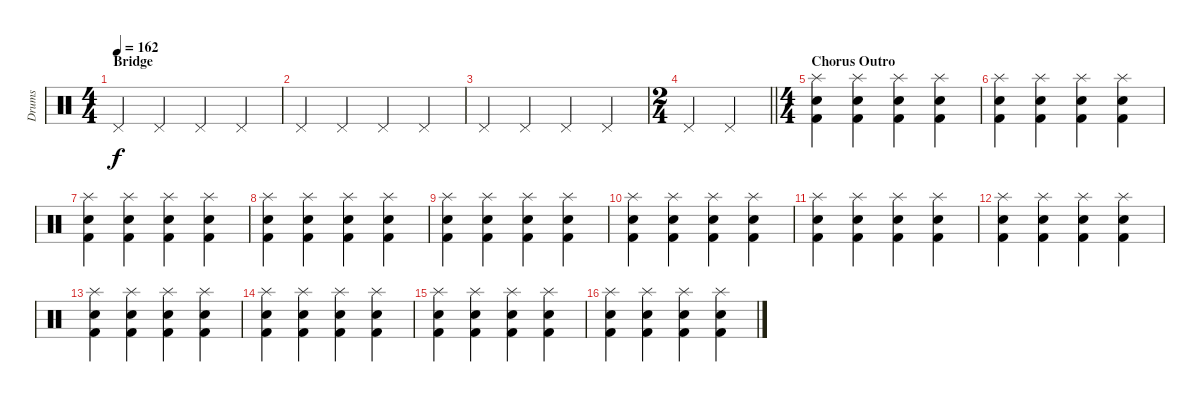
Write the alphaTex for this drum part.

\track ("Drums" "Drums") {instrument percussion}
\staff {score}
\articulation defaults
\ts (4 4)
\section ("" "Bridge")
\tempo 162
\clef neutral
\ks c "Pedal Hi-Hat (hit)".4{dy f} "Pedal Hi-Hat (hit)".4 "Pedal Hi-Hat (hit)".4 "Pedal Hi-Hat (hit)".4
|
"Pedal Hi-Hat (hit)".4 "Pedal Hi-Hat (hit)".4 "Pedal Hi-Hat (hit)".4 "Pedal Hi-Hat (hit)".4 |
"Pedal Hi-Hat (hit)".4 "Pedal Hi-Hat (hit)".4 "Pedal Hi-Hat (hit)".4 "Pedal Hi-Hat (hit)".4 |
\ts (2 4)
\barLineRight lightlight "Pedal Hi-Hat (hit)".4 "Pedal Hi-Hat (hit)".4
|
\ts (4 4)
\section ("" "Chorus Outro")
("Splash (hit)" "Electric Snare (hit)" "Kick (hit) 2").4 ("Splash (hit)" "Electric Snare (hit)" "Kick (hit) 2").4 ("Splash (hit)" "Electric Snare (hit)" "Kick (hit) 2").4 ("Splash (hit)" "Electric Snare (hit)" "Kick (hit) 2").4 |
("Splash (hit)" "Electric Snare (hit)" "Kick (hit) 2").4 ("Splash (hit)" "Electric Snare (hit)" "Kick (hit) 2").4 ("Splash (hit)" "Electric Snare (hit)" "Kick (hit) 2").4 ("Splash (hit)" "Electric Snare (hit)" "Kick (hit) 2").4 |
("Splash (hit)" "Electric Snare (hit)" "Kick (hit) 2").4 ("Splash (hit)" "Electric Snare (hit)" "Kick (hit) 2").4 ("Splash (hit)" "Electric Snare (hit)" "Kick (hit) 2").4 ("Splash (hit)" "Electric Snare (hit)" "Kick (hit) 2").4 |
("Splash (hit)" "Electric Snare (hit)" "Kick (hit) 2").4 ("Splash (hit)" "Electric Snare (hit)" "Kick (hit) 2").4 ("Splash (hit)" "Electric Snare (hit)" "Kick (hit) 2").4 ("Splash (hit)" "Electric Snare (hit)" "Kick (hit) 2").4 |
("Splash (hit)" "Electric Snare (hit)" "Kick (hit) 2").4 ("Splash (hit)" "Electric Snare (hit)" "Kick (hit) 2").4 ("Splash (hit)" "Electric Snare (hit)" "Kick (hit) 2").4 ("Splash (hit)" "Electric Snare (hit)" "Kick (hit) 2").4 |
("Splash (hit)" "Electric Snare (hit)" "Kick (hit) 2").4 ("Splash (hit)" "Electric Snare (hit)" "Kick (hit) 2").4 ("Splash (hit)" "Electric Snare (hit)" "Kick (hit) 2").4 ("Splash (hit)" "Electric Snare (hit)" "Kick (hit) 2").4 |
("Splash (hit)" "Electric Snare (hit)" "Kick (hit) 2").4 ("Splash (hit)" "Electric Snare (hit)" "Kick (hit) 2").4 ("Splash (hit)" "Electric Snare (hit)" "Kick (hit) 2").4 ("Splash (hit)" "Electric Snare (hit)" "Kick (hit) 2").4 |
("Splash (hit)" "Electric Snare (hit)" "Kick (hit) 2").4 ("Splash (hit)" "Electric Snare (hit)" "Kick (hit) 2").4 ("Splash (hit)" "Electric Snare (hit)" "Kick (hit) 2").4 ("Splash (hit)" "Electric Snare (hit)" "Kick (hit) 2").4 |
("Splash (hit)" "Electric Snare (hit)" "Kick (hit) 2").4 ("Splash (hit)" "Electric Snare (hit)" "Kick (hit) 2").4 ("Splash (hit)" "Electric Snare (hit)" "Kick (hit) 2").4 ("Splash (hit)" "Electric Snare (hit)" "Kick (hit) 2").4 |
("Splash (hit)" "Electric Snare (hit)" "Kick (hit) 2").4 ("Splash (hit)" "Electric Snare (hit)" "Kick (hit) 2").4 ("Splash (hit)" "Electric Snare (hit)" "Kick (hit) 2").4 ("Splash (hit)" "Electric Snare (hit)" "Kick (hit) 2").4 |
("Splash (hit)" "Electric Snare (hit)" "Kick (hit) 2").4 ("Splash (hit)" "Electric Snare (hit)" "Kick (hit) 2").4 ("Splash (hit)" "Electric Snare (hit)" "Kick (hit) 2").4 ("Splash (hit)" "Electric Snare (hit)" "Kick (hit) 2").4 |
("Splash (hit)" "Electric Snare (hit)" "Kick (hit) 2").4 ("Splash (hit)" "Electric Snare (hit)" "Kick (hit) 2").4 ("Splash (hit)" "Electric Snare (hit)" "Kick (hit) 2").4 ("Splash (hit)" "Electric Snare (hit)" "Kick (hit) 2").4
